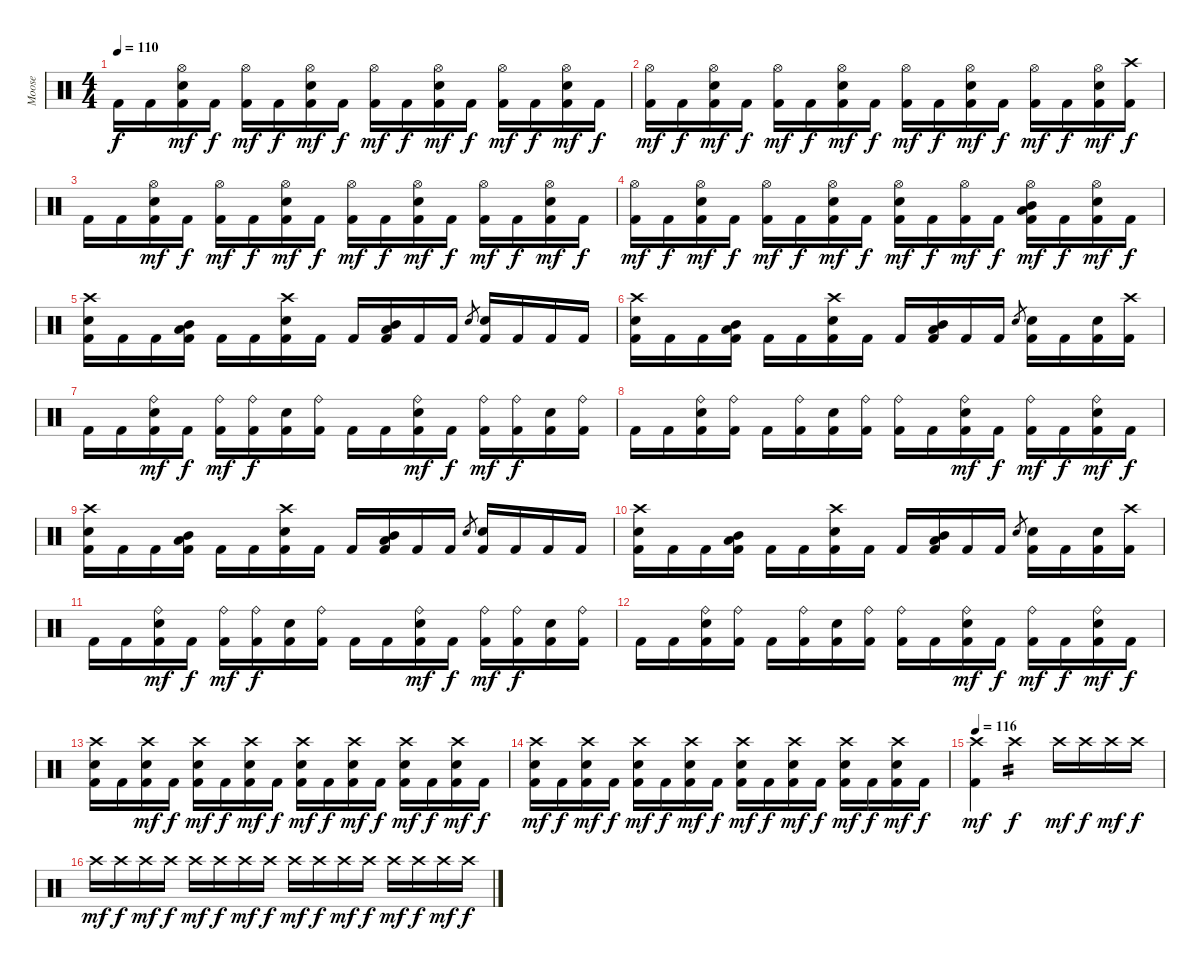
\track ("Moose" "Moose") {instrument percussion}
\staff {score}
\articulation defaults
\ts (4 4)
\tempo 110
\clef neutral
\ks c "Kick (hit) 2".16{dy f} "Kick (hit) 2".16
("Kick (hit) 2" "Snare (hit) 2" "Hi-Hat (open)").16{dy mf} "Kick (hit) 2".16{dy f} ("Kick (hit) 2" "Hi-Hat (open)").16{dy mf} "Kick (hit) 2".16{dy f} ("Kick (hit) 2" "Snare (hit) 2" "Hi-Hat (open)").16{dy mf} "Kick (hit) 2".16{dy f} ("Kick (hit) 2" "Hi-Hat (open)").16{dy mf} "Kick (hit) 2".16{dy f} ("Kick (hit) 2" "Snare (hit) 2" "Hi-Hat (open)").16{dy mf} "Kick (hit) 2".16{dy f} ("Kick (hit) 2" "Hi-Hat (open)").16{dy mf} "Kick (hit) 2".16{dy f} ("Kick (hit) 2" "Snare (hit) 2" "Hi-Hat (open)").16{dy mf} "Kick (hit) 2".16{dy f} |
("Kick (hit) 2" "Hi-Hat (open)").16{dy mf} "Kick (hit) 2".16{dy f} ("Kick (hit) 2" "Snare (hit) 2" "Hi-Hat (open)").16{dy mf} "Kick (hit) 2".16{dy f} ("Kick (hit) 2" "Hi-Hat (open)").16{dy mf} "Kick (hit) 2".16{dy f} ("Kick (hit) 2" "Snare (hit) 2" "Hi-Hat (open)").16{dy mf} "Kick (hit) 2".16{dy f} ("Kick (hit) 2" "Hi-Hat (open)").16{dy mf} "Kick (hit) 2".16{dy f} ("Kick (hit) 2" "Snare (hit) 2" "Hi-Hat (open)").16{dy mf} "Kick (hit) 2".16{dy f} ("Kick (hit) 2" "Hi-Hat (open)").16{dy mf} "Kick (hit) 2".16{dy f} ("Kick (hit) 2" "Snare (hit) 2" "Hi-Hat (open)").16{dy mf} ("Kick (hit) 2" "Crash high (hit)").16{dy f} |
"Kick (hit) 2".16 "Kick (hit) 2".16 ("Kick (hit) 2" "Snare (hit) 2" "Hi-Hat (open)").16{dy mf} "Kick (hit) 2".16{dy f} ("Kick (hit) 2" "Hi-Hat (open)").16{dy mf} "Kick (hit) 2".16{dy f} ("Kick (hit) 2" "Snare (hit) 2" "Hi-Hat (open)").16{dy mf} "Kick (hit) 2".16{dy f} ("Kick (hit) 2" "Hi-Hat (open)").16{dy mf} "Kick (hit) 2".16{dy f} ("Kick (hit) 2" "Snare (hit) 2" "Hi-Hat (open)").16{dy mf} "Kick (hit) 2".16{dy f} ("Kick (hit) 2" "Hi-Hat (open)").16{dy mf} "Kick (hit) 2".16{dy f} ("Kick (hit) 2" "Snare (hit) 2" "Hi-Hat (open)").16{dy mf} "Kick (hit) 2".16{dy f} |
("Kick (hit) 2" "Hi-Hat (open)").16{dy mf} "Kick (hit) 2".16{dy f} ("Kick (hit) 2" "Snare (hit) 2" "Hi-Hat (open)").16{dy mf} "Kick (hit) 2".16{dy f} ("Kick (hit) 2" "Hi-Hat (open)").16{dy mf} "Kick (hit) 2".16{dy f} ("Kick (hit) 2" "Snare (hit) 2" "Hi-Hat (open)").16{dy mf} "Kick (hit) 2".16{dy f} ("Kick (hit) 2" "Snare (hit) 2" "Hi-Hat (open)").16{dy mf} "Kick (hit) 2".16{dy f} ("Kick (hit) 2" "Hi-Hat (open)").16{dy mf} "Kick (hit) 2".16{dy f} ("Kick (hit) 2" "Mid Tom (hit)" "Low Tom (hit)" "Hi-Hat (open)").16{dy mf} "Kick (hit) 2".16{dy f} ("Kick (hit) 2" "Snare (hit) 2" "Hi-Hat (open)").16{dy mf} "Kick (hit) 2".16{dy f} |
("Kick (hit) 2" "Snare (hit) 2" "Crash high (hit)").16 "Kick (hit) 2".16 "Kick (hit) 2".16 ("Kick (hit) 2" "Mid Tom (hit)" "Low Tom (hit)").16 "Kick (hit) 2".16 "Kick (hit) 2".16 ("Kick (hit) 2" "Snare (hit) 2" "Crash high (hit)").16 "Kick (hit) 2".16 "Kick (hit) 2".16 ("Kick (hit) 2" "Mid Tom (hit)" "Low Tom (hit)").16 "Kick (hit) 2".16 "Kick (hit) 2".16 "Snare (hit) 2".8{gr} ("Kick (hit) 2" "Snare (hit) 2").16 "Kick (hit) 2".16 "Kick (hit) 2".16 "Kick (hit) 2".16 |
("Kick (hit) 2" "Snare (hit) 2" "Crash high (hit)").16 "Kick (hit) 2".16 "Kick (hit) 2".16 ("Kick (hit) 2" "Mid Tom (hit)" "Low Tom (hit)").16 "Kick (hit) 2".16 "Kick (hit) 2".16 ("Kick (hit) 2" "Snare (hit) 2" "Crash high (hit)").16 "Kick (hit) 2".16 "Kick (hit) 2".16 ("Kick (hit) 2" "Mid Tom (hit)" "Low Tom (hit)").16 "Kick (hit) 2".16 "Kick (hit) 2".16 "Snare (hit) 2".8{gr} ("Kick (hit) 2" "Snare (hit) 2").16 "Kick (hit) 2".16 ("Kick (hit) 2" "Snare (hit) 2").16 ("Kick (hit) 2" "Crash high (hit)").16 |
"Kick (hit) 2".16 "Kick (hit) 2".16 ("Kick (hit) 2" "Snare (hit) 2" "Ride (bell)").16{dy mf} "Kick (hit) 2".16{dy f} ("Kick (hit) 2" "Ride (bell)").16{dy mf} ("Kick (hit) 2" "Ride (bell)").16{dy f} ("Kick (hit) 2" "Snare (hit) 2").16 ("Kick (hit) 2" "Ride (bell)").16 "Kick (hit) 2".16 "Kick (hit) 2".16 ("Kick (hit) 2" "Snare (hit) 2" "Ride (bell)").16{dy mf} "Kick (hit) 2".16{dy f} ("Kick (hit) 2" "Ride (bell)").16{dy mf} ("Kick (hit) 2" "Ride (bell)").16{dy f} ("Kick (hit) 2" "Snare (hit) 2").16 ("Kick (hit) 2" "Ride (bell)").16 |
"Kick (hit) 2".16 "Kick (hit) 2".16 ("Kick (hit) 2" "Snare (hit) 2" "Ride (bell)").16 ("Kick (hit) 2" "Ride (bell)").16 "Kick (hit) 2".16 ("Kick (hit) 2" "Ride (bell)").16 ("Kick (hit) 2" "Snare (hit) 2").16 ("Kick (hit) 2" "Ride (bell)").16 ("Kick (hit) 2" "Ride (bell)").16 "Kick (hit) 2".16 ("Kick (hit) 2" "Snare (hit) 2" "Ride (bell)").16{dy mf} "Kick (hit) 2".16{dy f} ("Kick (hit) 2" "Ride (bell)").16{dy mf} "Kick (hit) 2".16{dy f} ("Kick (hit) 2" "Snare (hit) 2" "Ride (bell)").16{dy mf} "Kick (hit) 2".16{dy f} |
("Kick (hit) 2" "Snare (hit) 2" "Crash high (hit)").16 "Kick (hit) 2".16 "Kick (hit) 2".16 ("Kick (hit) 2" "Mid Tom (hit)" "Low Tom (hit)").16 "Kick (hit) 2".16 "Kick (hit) 2".16 ("Kick (hit) 2" "Snare (hit) 2" "Crash high (hit)").16 "Kick (hit) 2".16 "Kick (hit) 2".16 ("Kick (hit) 2" "Mid Tom (hit)" "Low Tom (hit)").16 "Kick (hit) 2".16 "Kick (hit) 2".16 "Snare (hit) 2".8{gr} ("Kick (hit) 2" "Snare (hit) 2").16 "Kick (hit) 2".16 "Kick (hit) 2".16 "Kick (hit) 2".16 |
("Kick (hit) 2" "Snare (hit) 2" "Crash high (hit)").16 "Kick (hit) 2".16 "Kick (hit) 2".16 ("Kick (hit) 2" "Mid Tom (hit)" "Low Tom (hit)").16 "Kick (hit) 2".16 "Kick (hit) 2".16 ("Kick (hit) 2" "Snare (hit) 2" "Crash high (hit)").16 "Kick (hit) 2".16 "Kick (hit) 2".16 ("Kick (hit) 2" "Mid Tom (hit)" "Low Tom (hit)").16 "Kick (hit) 2".16 "Kick (hit) 2".16 "Snare (hit) 2".8{gr} ("Kick (hit) 2" "Snare (hit) 2").16 "Kick (hit) 2".16 ("Kick (hit) 2" "Snare (hit) 2").16 ("Kick (hit) 2" "Crash high (hit)").16 |
"Kick (hit) 2".16 "Kick (hit) 2".16 ("Kick (hit) 2" "Snare (hit) 2" "Ride (bell)").16{dy mf} "Kick (hit) 2".16{dy f} ("Kick (hit) 2" "Ride (bell)").16{dy mf} ("Kick (hit) 2" "Ride (bell)").16{dy f} ("Kick (hit) 2" "Snare (hit) 2").16 ("Kick (hit) 2" "Ride (bell)").16 "Kick (hit) 2".16 "Kick (hit) 2".16 ("Kick (hit) 2" "Snare (hit) 2" "Ride (bell)").16{dy mf} "Kick (hit) 2".16{dy f} ("Kick (hit) 2" "Ride (bell)").16{dy mf} ("Kick (hit) 2" "Ride (bell)").16{dy f} ("Kick (hit) 2" "Snare (hit) 2").16 ("Kick (hit) 2" "Ride (bell)").16 |
"Kick (hit) 2".16 "Kick (hit) 2".16 ("Kick (hit) 2" "Snare (hit) 2" "Ride (bell)").16 ("Kick (hit) 2" "Ride (bell)").16 "Kick (hit) 2".16 ("Kick (hit) 2" "Ride (bell)").16 ("Kick (hit) 2" "Snare (hit) 2").16 ("Kick (hit) 2" "Ride (bell)").16 ("Kick (hit) 2" "Ride (bell)").16 "Kick (hit) 2".16 ("Kick (hit) 2" "Snare (hit) 2" "Ride (bell)").16{dy mf} "Kick (hit) 2".16{dy f} ("Kick (hit) 2" "Ride (bell)").16{dy mf} "Kick (hit) 2".16{dy f} ("Kick (hit) 2" "Snare (hit) 2" "Ride (bell)").16{dy mf} "Kick (hit) 2".16{dy f} |
("Kick (hit) 2" "Snare (hit) 2" "Crash high (hit)").16 "Kick (hit) 2".16 ("Kick (hit) 2" "Snare (hit) 2" "Crash high (hit)").16{dy mf} "Kick (hit) 2".16{dy f} ("Kick (hit) 2" "Snare (hit) 2" "Crash high (hit)").16{dy mf} "Kick (hit) 2".16{dy f} ("Kick (hit) 2" "Snare (hit) 2" "Crash high (hit)").16{dy mf} "Kick (hit) 2".16{dy f} ("Kick (hit) 2" "Snare (hit) 2" "Crash high (hit)").16{dy mf} "Kick (hit) 2".16{dy f} ("Kick (hit) 2" "Snare (hit) 2" "Crash high (hit)").16{dy mf} "Kick (hit) 2".16{dy f} ("Kick (hit) 2" "Snare (hit) 2" "Crash high (hit)").16{dy mf} "Kick (hit) 2".16{dy f} ("Kick (hit) 2" "Snare (hit) 2" "Crash high (hit)").16{dy mf} "Kick (hit) 2".16{dy f} |
("Kick (hit) 2" "Snare (hit) 2" "Crash high (hit)").16{dy mf} "Kick (hit) 2".16{dy f} ("Kick (hit) 2" "Snare (hit) 2" "Crash high (hit)").16{dy mf} "Kick (hit) 2".16{dy f} ("Kick (hit) 2" "Snare (hit) 2" "Crash high (hit)").16{dy mf} "Kick (hit) 2".16{dy f} ("Kick (hit) 2" "Snare (hit) 2" "Crash high (hit)").16{dy mf} "Kick (hit) 2".16{dy f} ("Kick (hit) 2" "Snare (hit) 2" "Crash high (hit)").16{dy mf} "Kick (hit) 2".16{dy f} ("Kick (hit) 2" "Snare (hit) 2" "Crash high (hit)").16{dy mf} "Kick (hit) 2".16{dy f} ("Kick (hit) 2" "Snare (hit) 2" "Crash high (hit)").16{dy mf} "Kick (hit) 2".16{dy f} ("Kick (hit) 2" "Snare (hit) 2" "Crash high (hit)").16{dy mf} "Kick (hit) 2".16{dy f} |
\tempo 116
("Kick (hit) 2" "Crash high (hit)").4{dy mf volume 12} "Crash high (hit)".2{tp 2 dy f} "Crash high (hit)".16{dy mf} "Crash high (hit)".16{dy f} "Crash high (hit)".16{dy mf} "Crash high (hit)".16{dy f} |
"Crash high (hit)".16{dy mf} "Crash high (hit)".16{dy f} "Crash high (hit)".16{dy mf} "Crash high (hit)".16{dy f} "Crash high (hit)".16{dy mf} "Crash high (hit)".16{dy f} "Crash high (hit)".16{dy mf} "Crash high (hit)".16{dy f} "Crash high (hit)".16{dy mf} "Crash high (hit)".16{dy f} "Crash high (hit)".16{dy mf} "Crash high (hit)".16{dy f} "Crash high (hit)".16{dy mf} "Crash high (hit)".16{dy f} "Crash high (hit)".16{dy mf} "Crash high (hit)".16{dy f}
